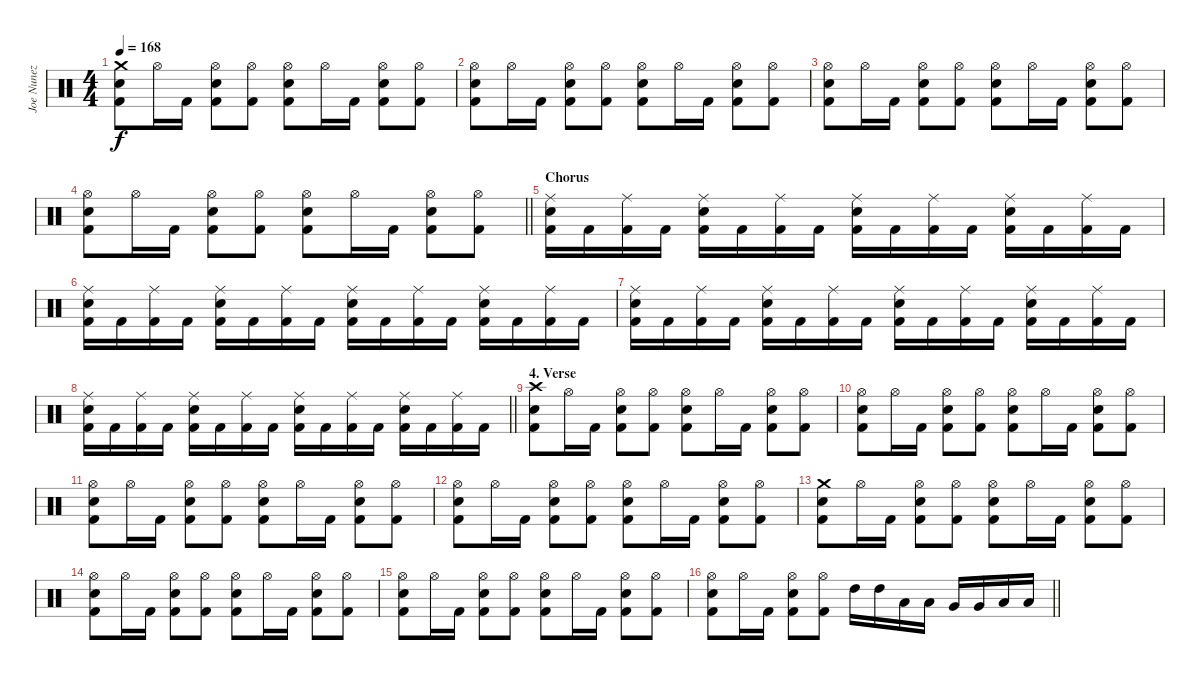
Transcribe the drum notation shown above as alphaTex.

\track ("Joe Nunez (Drums)" "Joe Nunez ") {instrument percussion}
\staff {score}
\articulation defaults
\ts (4 4)
\tempo 168
\clef neutral
\ks c
("Crash medium (hit)" "Snare (hit) 2" "Kick (hit) 2").8{dy f} "Hi-Hat (open)".16 "Kick (hit) 2".16 ("Hi-Hat (open)" "Snare (hit) 2" "Kick (hit) 2").8 ("Hi-Hat (open)" "Kick (hit) 2").8 ("Hi-Hat (open)" "Snare (hit) 2" "Kick (hit) 2").8 "Hi-Hat (open)".16 "Kick (hit) 2".16 ("Hi-Hat (open)" "Snare (hit) 2" "Kick (hit) 2").8 ("Hi-Hat (open)" "Kick (hit) 2").8 |
("Hi-Hat (open)" "Snare (hit) 2" "Kick (hit) 2").8 "Hi-Hat (open)".16 "Kick (hit) 2".16 ("Hi-Hat (open)" "Snare (hit) 2" "Kick (hit) 2").8 ("Hi-Hat (open)" "Kick (hit) 2").8 ("Hi-Hat (open)" "Snare (hit) 2" "Kick (hit) 2").8 "Hi-Hat (open)".16 "Kick (hit) 2".16 ("Hi-Hat (open)" "Snare (hit) 2" "Kick (hit) 2").8 ("Hi-Hat (open)" "Kick (hit) 2").8 |
("Hi-Hat (open)" "Snare (hit) 2" "Kick (hit) 2").8 "Hi-Hat (open)".16 "Kick (hit) 2".16 ("Hi-Hat (open)" "Snare (hit) 2" "Kick (hit) 2").8 ("Hi-Hat (open)" "Kick (hit) 2").8 ("Hi-Hat (open)" "Snare (hit) 2" "Kick (hit) 2").8 "Hi-Hat (open)".16 "Kick (hit) 2".16 ("Hi-Hat (open)" "Snare (hit) 2" "Kick (hit) 2").8 ("Hi-Hat (open)" "Kick (hit) 2").8 |
\barLineRight lightlight
("Hi-Hat (open)" "Snare (hit) 2" "Kick (hit) 2").8 "Hi-Hat (open)".16 "Kick (hit) 2".16 ("Hi-Hat (open)" "Snare (hit) 2" "Kick (hit) 2").8 ("Hi-Hat (open)" "Kick (hit) 2").8 ("Hi-Hat (open)" "Snare (hit) 2" "Kick (hit) 2").8 "Hi-Hat (open)".16 "Kick (hit) 2".16 ("Hi-Hat (open)" "Snare (hit) 2" "Kick (hit) 2").8 ("Hi-Hat (open)" "Kick (hit) 2").8 |
\section ("" "Chorus")
("Ride (middle)" "Snare (hit) 2" "Kick (hit) 2").16 "Kick (hit) 2".16 ("Ride (middle)" "Kick (hit) 2").16 "Kick (hit) 2".16 ("Ride (middle)" "Snare (hit) 2" "Kick (hit) 2").16 "Kick (hit) 2".16 ("Ride (middle)" "Kick (hit) 2").16 "Kick (hit) 2".16 ("Ride (middle)" "Snare (hit) 2" "Kick (hit) 2").16 "Kick (hit) 2".16 ("Ride (middle)" "Kick (hit) 2").16 "Kick (hit) 2".16 ("Ride (middle)" "Snare (hit) 2" "Kick (hit) 2").16 "Kick (hit) 2".16 ("Ride (middle)" "Kick (hit) 2").16 "Kick (hit) 2".16 |
("Ride (middle)" "Snare (hit) 2" "Kick (hit) 2").16 "Kick (hit) 2".16 ("Ride (middle)" "Kick (hit) 2").16 "Kick (hit) 2".16 ("Ride (middle)" "Snare (hit) 2" "Kick (hit) 2").16 "Kick (hit) 2".16 ("Ride (middle)" "Kick (hit) 2").16 "Kick (hit) 2".16 ("Ride (middle)" "Snare (hit) 2" "Kick (hit) 2").16 "Kick (hit) 2".16 ("Ride (middle)" "Kick (hit) 2").16 "Kick (hit) 2".16 ("Ride (middle)" "Snare (hit) 2" "Kick (hit) 2").16 "Kick (hit) 2".16 ("Ride (middle)" "Kick (hit) 2").16 "Kick (hit) 2".16 |
("Ride (middle)" "Snare (hit) 2" "Kick (hit) 2").16 "Kick (hit) 2".16 ("Ride (middle)" "Kick (hit) 2").16 "Kick (hit) 2".16 ("Ride (middle)" "Snare (hit) 2" "Kick (hit) 2").16 "Kick (hit) 2".16 ("Ride (middle)" "Kick (hit) 2").16 "Kick (hit) 2".16 ("Ride (middle)" "Snare (hit) 2" "Kick (hit) 2").16 "Kick (hit) 2".16 ("Ride (middle)" "Kick (hit) 2").16 "Kick (hit) 2".16 ("Ride (middle)" "Snare (hit) 2" "Kick (hit) 2").16 "Kick (hit) 2".16 ("Ride (middle)" "Kick (hit) 2").16 "Kick (hit) 2".16 |
\barLineRight lightlight
("Ride (middle)" "Snare (hit) 2" "Kick (hit) 2").16 "Kick (hit) 2".16 ("Ride (middle)" "Kick (hit) 2").16 "Kick (hit) 2".16 ("Ride (middle)" "Snare (hit) 2" "Kick (hit) 2").16 "Kick (hit) 2".16 ("Ride (middle)" "Kick (hit) 2").16 "Kick (hit) 2".16 ("Ride (middle)" "Snare (hit) 2" "Kick (hit) 2").16 "Kick (hit) 2".16 ("Ride (middle)" "Kick (hit) 2").16 "Kick (hit) 2".16 ("Ride (middle)" "Snare (hit) 2" "Kick (hit) 2").16 "Kick (hit) 2".16 ("Ride (middle)" "Kick (hit) 2").16 "Kick (hit) 2".16 |
\section ("" "4. Verse")
("Crash high (hit)" "Snare (hit) 2" "Kick (hit) 2").8 "Hi-Hat (open)".16 "Kick (hit) 2".16 ("Hi-Hat (open)" "Snare (hit) 2" "Kick (hit) 2").8 ("Hi-Hat (open)" "Kick (hit) 2").8 ("Hi-Hat (open)" "Snare (hit) 2" "Kick (hit) 2").8 "Hi-Hat (open)".16 "Kick (hit) 2".16 ("Hi-Hat (open)" "Snare (hit) 2" "Kick (hit) 2").8 ("Hi-Hat (open)" "Kick (hit) 2").8 |
("Hi-Hat (open)" "Snare (hit) 2" "Kick (hit) 2").8 "Hi-Hat (open)".16 "Kick (hit) 2".16 ("Hi-Hat (open)" "Snare (hit) 2" "Kick (hit) 2").8 ("Hi-Hat (open)" "Kick (hit) 2").8 ("Hi-Hat (open)" "Snare (hit) 2" "Kick (hit) 2").8 "Hi-Hat (open)".16 "Kick (hit) 2".16 ("Hi-Hat (open)" "Snare (hit) 2" "Kick (hit) 2").8 ("Hi-Hat (open)" "Kick (hit) 2").8 |
("Hi-Hat (open)" "Snare (hit) 2" "Kick (hit) 2").8 "Hi-Hat (open)".16 "Kick (hit) 2".16 ("Hi-Hat (open)" "Snare (hit) 2" "Kick (hit) 2").8 ("Hi-Hat (open)" "Kick (hit) 2").8 ("Hi-Hat (open)" "Snare (hit) 2" "Kick (hit) 2").8 "Hi-Hat (open)".16 "Kick (hit) 2".16 ("Hi-Hat (open)" "Snare (hit) 2" "Kick (hit) 2").8 ("Hi-Hat (open)" "Kick (hit) 2").8 |
("Hi-Hat (open)" "Snare (hit) 2" "Kick (hit) 2").8 "Hi-Hat (open)".16 "Kick (hit) 2".16 ("Hi-Hat (open)" "Snare (hit) 2" "Kick (hit) 2").8 ("Hi-Hat (open)" "Kick (hit) 2").8 ("Hi-Hat (open)" "Snare (hit) 2" "Kick (hit) 2").8 "Hi-Hat (open)".16 "Kick (hit) 2".16 ("Hi-Hat (open)" "Snare (hit) 2" "Kick (hit) 2").8 ("Hi-Hat (open)" "Kick (hit) 2").8 |
("Crash medium (hit)" "Snare (hit) 2" "Kick (hit) 2").8 "Hi-Hat (open)".16 "Kick (hit) 2".16 ("Hi-Hat (open)" "Snare (hit) 2" "Kick (hit) 2").8 ("Hi-Hat (open)" "Kick (hit) 2").8 ("Hi-Hat (open)" "Snare (hit) 2" "Kick (hit) 2").8 "Hi-Hat (open)".16 "Kick (hit) 2".16 ("Hi-Hat (open)" "Snare (hit) 2" "Kick (hit) 2").8 ("Hi-Hat (open)" "Kick (hit) 2").8 |
("Hi-Hat (open)" "Snare (hit) 2" "Kick (hit) 2").8 "Hi-Hat (open)".16 "Kick (hit) 2".16 ("Hi-Hat (open)" "Snare (hit) 2" "Kick (hit) 2").8 ("Hi-Hat (open)" "Kick (hit) 2").8 ("Hi-Hat (open)" "Snare (hit) 2" "Kick (hit) 2").8 "Hi-Hat (open)".16 "Kick (hit) 2".16 ("Hi-Hat (open)" "Snare (hit) 2" "Kick (hit) 2").8 ("Hi-Hat (open)" "Kick (hit) 2").8 |
("Hi-Hat (open)" "Snare (hit) 2" "Kick (hit) 2").8 "Hi-Hat (open)".16 "Kick (hit) 2".16 ("Hi-Hat (open)" "Snare (hit) 2" "Kick (hit) 2").8 ("Hi-Hat (open)" "Kick (hit) 2").8 ("Hi-Hat (open)" "Snare (hit) 2" "Kick (hit) 2").8 "Hi-Hat (open)".16 "Kick (hit) 2".16 ("Hi-Hat (open)" "Snare (hit) 2" "Kick (hit) 2").8 ("Hi-Hat (open)" "Kick (hit) 2").8 |
\barLineRight lightlight
("Hi-Hat (open)" "Snare (hit) 2" "Kick (hit) 2").8 "Hi-Hat (open)".16 "Kick (hit) 2".16 ("Hi-Hat (open)" "Snare (hit) 2" "Kick (hit) 2").8 ("Hi-Hat (open)" "Kick (hit) 2").8 "High Tom (hit)".16 "High Tom (hit)".16 "Low Tom (hit)".16 "Low Tom (hit)".16 "Very Low Tom (hit)".16 "Very Low Tom (hit)".16 "Low Floor Tom (hit)".16 "Low Floor Tom (hit)".16
